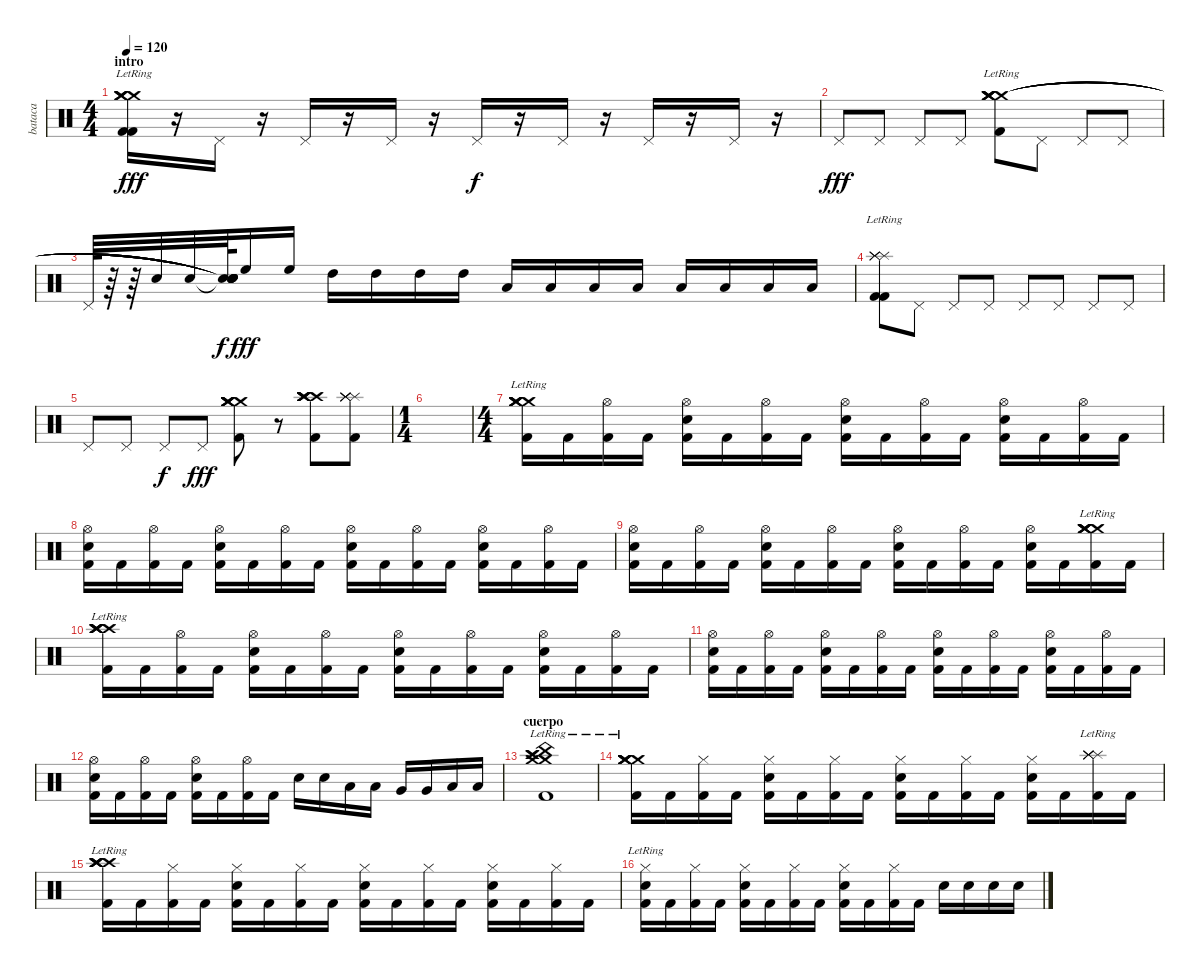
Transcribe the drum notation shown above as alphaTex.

\track ("bataca" "bataca") {instrument percussion}
\staff {score}
\articulation defaults
\ts (4 4)
\section ("" "intro")
\tempo 120
\clef neutral
\ks c
("Kick (hit) 2"{lr} "Kick (hit) 2"{lr} "Crash medium (hit)" "Crash medium (hit)" "Crash medium (hit)" "Crash medium (hit)").16{dy fff} r.16 "Pedal Hi-Hat (hit)".16 r.16 "Pedal Hi-Hat (hit)".16 r.16 "Pedal Hi-Hat (hit)".16 r.16 "Pedal Hi-Hat (hit)".16{dy f} r.16 "Pedal Hi-Hat (hit)".16 r.16 "Pedal Hi-Hat (hit)".16 r.16 "Pedal Hi-Hat (hit)".16 r.16 |
"Pedal Hi-Hat (hit)".8{dy fff} "Pedal Hi-Hat (hit)".8 "Pedal Hi-Hat (hit)".8 "Pedal Hi-Hat (hit)".8 ("Kick (hit) 2"{lr} "Crash medium (hit)"{lr} "Crash medium (hit)"{lr} "Crash medium (hit)"{lr} "Crash medium (hit)"{lr} "Crash medium (hit)"{lr}).8 "Pedal Hi-Hat (hit)".8 "Pedal Hi-Hat (hit)".8 "Pedal Hi-Hat (hit)".8 |
"Pedal Hi-Hat (hit)".64 r.64 r.64 "Electric Snare (hit)".32 "Electric Snare (hit)".32 ("Snare (hit)"{t} "Snare (hit)"{t} "Snare (hit)"{t} "Snare (hit)"{t} "Snare (hit)"{t} "Snare (hit)"{t}).64{dy f} "High Floor Tom (hit)".16{dy fff} "High Floor Tom (hit)".16 "High Tom (hit)".16 "High Tom (hit)".16 "High Tom (hit)".16 "High Tom (hit)".16 "Low Tom (hit)".16 "Low Tom (hit)".16 "Low Tom (hit)".16 "Low Tom (hit)".16 "Low Floor Tom (hit)".16 "Low Floor Tom (hit)".16 "Low Floor Tom (hit)".16 "Low Floor Tom (hit)".16 |
("Kick (hit) 2" "Kick (hit) 2" "Splash (hit)" "Splash (hit)" "Splash (hit)" "Splash (hit)"{lr}).8 "Pedal Hi-Hat (hit)".8 "Pedal Hi-Hat (hit)".8 "Pedal Hi-Hat (hit)".8 "Pedal Hi-Hat (hit)".8 "Pedal Hi-Hat (hit)".8 "Pedal Hi-Hat (hit)".8 "Pedal Hi-Hat (hit)".8 |
"Pedal Hi-Hat (hit)".8 "Pedal Hi-Hat (hit)".8 "Pedal Hi-Hat (hit)".8{dy f} "Pedal Hi-Hat (hit)".8{dy fff} ("Kick (hit) 2" "Crash medium (hit)" "Crash medium (hit)" "Crash medium (hit)" "Crash medium (hit)" "Crash medium (hit)").8 r.8 ("Kick (hit) 2" "Crash high (hit)" "Crash high (hit)" "Crash high (hit)" "Crash high (hit)" "Crash high (hit)").8 ("Kick (hit) 2" "Splash (hit)" "Splash (hit)" "Splash (hit)" "Splash (hit)" "Splash (hit)").8 |
\ts (1 4)
|
\ts (4 4)
("Kick (hit) 2" "Crash medium (hit)"{lr} "Crash medium (hit)"{lr} "Crash medium (hit)"{lr} "Crash medium (hit)"{lr} "Crash medium (hit)").16 "Kick (hit) 2".16 ("Kick (hit) 2" "Hi-Hat (open)").16 "Kick (hit) 2".16 ("Kick (hit) 2" "Hi-Hat (open)" "Electric Snare (hit)").16 "Kick (hit) 2".16 ("Kick (hit) 2" "Hi-Hat (open)").16 "Kick (hit) 2".16 ("Kick (hit) 2" "Hi-Hat (open)" "Electric Snare (hit)").16 "Kick (hit) 2".16 ("Kick (hit) 2" "Hi-Hat (open)").16 "Kick (hit) 2".16 ("Kick (hit) 2" "Hi-Hat (open)" "Electric Snare (hit)").16 "Kick (hit) 2".16 ("Kick (hit) 2" "Hi-Hat (open)").16 "Kick (hit) 2".16 |
("Kick (hit) 2" "Hi-Hat (open)" "Electric Snare (hit)").16 "Kick (hit) 2".16 ("Kick (hit) 2" "Hi-Hat (open)").16 "Kick (hit) 2".16 ("Kick (hit) 2" "Hi-Hat (open)" "Electric Snare (hit)").16 "Kick (hit) 2".16 ("Kick (hit) 2" "Hi-Hat (open)").16 "Kick (hit) 2".16 ("Kick (hit) 2" "Hi-Hat (open)" "Electric Snare (hit)").16 "Kick (hit) 2".16 ("Kick (hit) 2" "Hi-Hat (open)").16 "Kick (hit) 2".16 ("Kick (hit) 2" "Hi-Hat (open)" "Electric Snare (hit)").16 "Kick (hit) 2".16 ("Kick (hit) 2" "Hi-Hat (open)").16 "Kick (hit) 2".16 |
("Kick (hit) 2" "Hi-Hat (open)" "Electric Snare (hit)").16 "Kick (hit) 2".16 ("Kick (hit) 2" "Hi-Hat (open)").16 "Kick (hit) 2".16 ("Kick (hit) 2" "Hi-Hat (open)" "Electric Snare (hit)").16 "Kick (hit) 2".16 ("Kick (hit) 2" "Hi-Hat (open)").16 "Kick (hit) 2".16 ("Kick (hit) 2" "Hi-Hat (open)" "Electric Snare (hit)").16 "Kick (hit) 2".16 ("Kick (hit) 2" "Hi-Hat (open)").16 "Kick (hit) 2".16 ("Kick (hit) 2" "Hi-Hat (open)" "Electric Snare (hit)").16 "Kick (hit) 2".16 ("Kick (hit) 2" "Crash medium (hit)"{lr} "Crash medium (hit)"{lr} "Crash medium (hit)"{lr} "Crash medium (hit)"{lr} "Crash medium (hit)"{lr}).16 "Kick (hit) 2".16 |
("Kick (hit) 2" "Crash high (hit)"{lr} "Crash high (hit)"{lr} "Crash high (hit)"{lr} "Crash high (hit)"{lr} "Crash high (hit)").16 "Kick (hit) 2".16 ("Kick (hit) 2" "Hi-Hat (open)").16 "Kick (hit) 2".16 ("Kick (hit) 2" "Hi-Hat (open)" "Electric Snare (hit)").16 "Kick (hit) 2".16 ("Kick (hit) 2" "Hi-Hat (open)").16 "Kick (hit) 2".16 ("Kick (hit) 2" "Hi-Hat (open)" "Electric Snare (hit)").16 "Kick (hit) 2".16 ("Kick (hit) 2" "Hi-Hat (open)").16 "Kick (hit) 2".16 ("Kick (hit) 2" "Hi-Hat (open)" "Electric Snare (hit)").16 "Kick (hit) 2".16 ("Kick (hit) 2" "Hi-Hat (open)").16 "Kick (hit) 2".16 |
("Kick (hit) 2" "Hi-Hat (open)" "Electric Snare (hit)").16 "Kick (hit) 2".16 ("Kick (hit) 2" "Hi-Hat (open)").16 "Kick (hit) 2".16 ("Kick (hit) 2" "Hi-Hat (open)" "Electric Snare (hit)").16 "Kick (hit) 2".16 ("Kick (hit) 2" "Hi-Hat (open)").16 "Kick (hit) 2".16 ("Kick (hit) 2" "Hi-Hat (open)" "Electric Snare (hit)").16 "Kick (hit) 2".16 ("Kick (hit) 2" "Hi-Hat (open)").16 "Kick (hit) 2".16 ("Kick (hit) 2" "Hi-Hat (open)" "Electric Snare (hit)").16 "Kick (hit) 2".16 ("Kick (hit) 2" "Hi-Hat (open)").16 "Kick (hit) 2".16 |
("Kick (hit) 2" "Hi-Hat (open)" "Electric Snare (hit)").16 "Kick (hit) 2".16 ("Kick (hit) 2" "Hi-Hat (open)").16 "Kick (hit) 2".16 ("Kick (hit) 2" "Hi-Hat (open)" "Electric Snare (hit)").16 "Kick (hit) 2".16 ("Kick (hit) 2" "Hi-Hat (open)").16 "Kick (hit) 2".16 "Electric Snare (hit)".16 "Electric Snare (hit)".16 "Low Tom (hit)".16 "Low Tom (hit)".16 "Very Low Tom (hit)".16 "Very Low Tom (hit)".16 "Low Floor Tom (hit)".16 "Low Floor Tom (hit)".16 |
\section ("" "cuerpo")
("Kick (hit) 2" "Crash medium (hit)"{lr} "Crash medium (hit)"{lr} "Crash high (hit)"{lr} "Crash high (hit)"{lr} "China (hit)"{lr}).1 |
("Kick (hit) 2" "Crash medium (hit)"{lr} "Crash medium (hit)"{lr} "Crash medium (hit)"{lr} "Crash medium (hit)"{lr} "Crash medium (hit)").16 "Kick (hit) 2".16 ("Kick (hit) 2" "Hi-Hat (closed)").16 "Kick (hit) 2".16 ("Kick (hit) 2" "Hi-Hat (closed)" "Electric Snare (hit)").16 "Kick (hit) 2".16 ("Kick (hit) 2" "Hi-Hat (closed)").16 "Kick (hit) 2".16 ("Kick (hit) 2" "Hi-Hat (closed)" "Electric Snare (hit)").16 "Kick (hit) 2".16 ("Kick (hit) 2" "Hi-Hat (closed)").16 "Kick (hit) 2".16 ("Kick (hit) 2" "Hi-Hat (closed)" "Electric Snare (hit)").16 "Kick (hit) 2".16 ("Kick (hit) 2" "Splash (hit)"{lr} "Splash (hit)"{lr} "Splash (hit)"{lr} "Splash (hit)"{lr} "Splash (hit)"{lr}).16 "Kick (hit) 2".16 |
("Kick (hit) 2" "Crash high (hit)"{lr} "Crash high (hit)"{lr} "Crash high (hit)"{lr} "Crash high (hit)"{lr} "Crash high (hit)"{lr}).16 "Kick (hit) 2".16 ("Kick (hit) 2" "Hi-Hat (closed)").16 "Kick (hit) 2".16 ("Kick (hit) 2" "Hi-Hat (closed)" "Electric Snare (hit)").16 "Kick (hit) 2".16 ("Kick (hit) 2" "Hi-Hat (closed)").16 "Kick (hit) 2".16 ("Kick (hit) 2" "Hi-Hat (closed)" "Electric Snare (hit)").16 "Kick (hit) 2".16 ("Kick (hit) 2" "Hi-Hat (closed)").16 "Kick (hit) 2".16 ("Kick (hit) 2" "Hi-Hat (closed)" "Electric Snare (hit)").16 "Kick (hit) 2".16 ("Kick (hit) 2" "Hi-Hat (closed)").16 "Kick (hit) 2".16 |
("Kick (hit) 2" "Hi-Hat (closed)"{lr} "Electric Snare (hit)").16 "Kick (hit) 2".16 ("Kick (hit) 2" "Hi-Hat (closed)").16 "Kick (hit) 2".16 ("Kick (hit) 2" "Hi-Hat (closed)" "Electric Snare (hit)").16 "Kick (hit) 2".16 ("Kick (hit) 2" "Hi-Hat (closed)").16 "Kick (hit) 2".16 ("Kick (hit) 2" "Hi-Hat (closed)" "Electric Snare (hit)").16 "Kick (hit) 2".16 ("Kick (hit) 2" "Hi-Hat (closed)").16 "Kick (hit) 2".16 "Electric Snare (hit)".16 "Electric Snare (hit)".16 "Electric Snare (hit)".16 "Electric Snare (hit)".16
